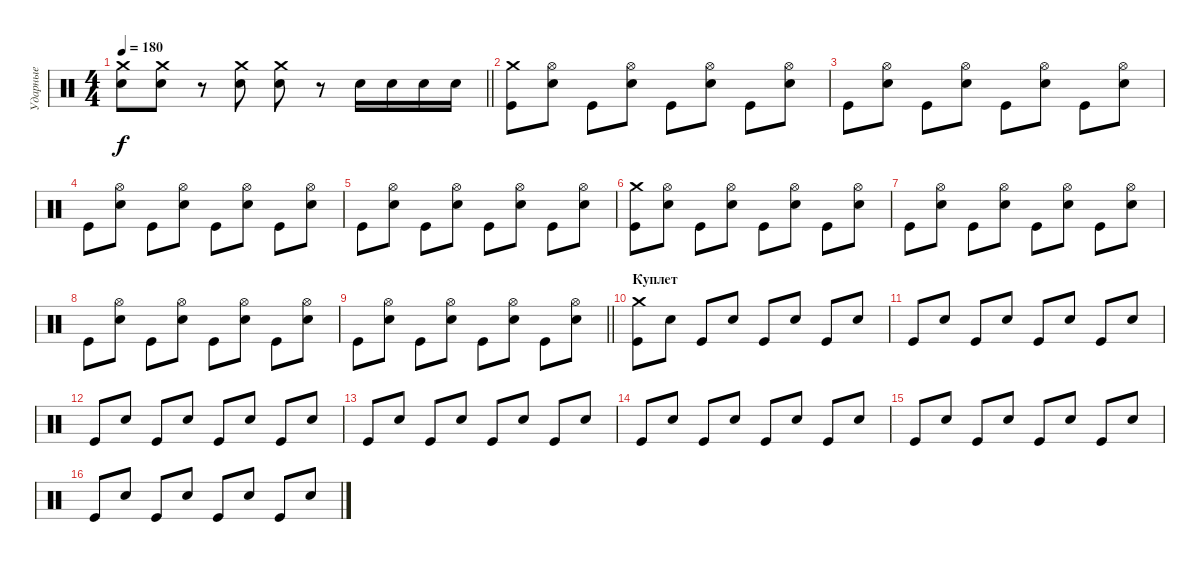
\track ("Ударные" "Ударные") {instrument percussion}
\staff {score}
\articulation defaults
\ts (4 4)
\tempo 180
\clef neutral
\barLineRight lightlight
\ks c
("Crash medium (hit)" "Electric Snare (hit)").8{dy f} ("Crash medium (hit)" "Electric Snare (hit)").8 r.8 ("Crash medium (hit)" "Electric Snare (hit)").8 ("Crash medium (hit)" "Electric Snare (hit)").8 r.8 "Electric Snare (hit)".16 "Electric Snare (hit)".16 "Electric Snare (hit)".16 "Electric Snare (hit)".16 |
("Crash medium (hit)" "Kick (hit)").8 ("Hi-Hat (open)" "Electric Snare (hit)").8 "Kick (hit)".8 ("Hi-Hat (open)" "Electric Snare (hit)").8 "Kick (hit)".8 ("Hi-Hat (open)" "Electric Snare (hit)").8 "Kick (hit)".8 ("Hi-Hat (open)" "Electric Snare (hit)").8 |
"Kick (hit)".8 ("Hi-Hat (open)" "Electric Snare (hit)").8 "Kick (hit)".8 ("Hi-Hat (open)" "Electric Snare (hit)").8 "Kick (hit)".8 ("Hi-Hat (open)" "Electric Snare (hit)").8 "Kick (hit)".8 ("Hi-Hat (open)" "Electric Snare (hit)").8 |
"Kick (hit)".8 ("Hi-Hat (open)" "Electric Snare (hit)").8 "Kick (hit)".8 ("Hi-Hat (open)" "Electric Snare (hit)").8 "Kick (hit)".8 ("Hi-Hat (open)" "Electric Snare (hit)").8 "Kick (hit)".8 ("Hi-Hat (open)" "Electric Snare (hit)").8 |
"Kick (hit)".8 ("Hi-Hat (open)" "Electric Snare (hit)").8 "Kick (hit)".8 ("Hi-Hat (open)" "Electric Snare (hit)").8 "Kick (hit)".8 ("Hi-Hat (open)" "Electric Snare (hit)").8 "Kick (hit)".8 ("Hi-Hat (open)" "Electric Snare (hit)").8 |
("Crash medium (hit)" "Kick (hit)").8 ("Hi-Hat (open)" "Electric Snare (hit)").8 "Kick (hit)".8 ("Hi-Hat (open)" "Electric Snare (hit)").8 "Kick (hit)".8 ("Hi-Hat (open)" "Electric Snare (hit)").8 "Kick (hit)".8 ("Hi-Hat (open)" "Electric Snare (hit)").8 |
"Kick (hit)".8 ("Hi-Hat (open)" "Electric Snare (hit)").8 "Kick (hit)".8 ("Hi-Hat (open)" "Electric Snare (hit)").8 "Kick (hit)".8 ("Hi-Hat (open)" "Electric Snare (hit)").8 "Kick (hit)".8 ("Hi-Hat (open)" "Electric Snare (hit)").8 |
"Kick (hit)".8 ("Hi-Hat (open)" "Electric Snare (hit)").8 "Kick (hit)".8 ("Hi-Hat (open)" "Electric Snare (hit)").8 "Kick (hit)".8 ("Hi-Hat (open)" "Electric Snare (hit)").8 "Kick (hit)".8 ("Hi-Hat (open)" "Electric Snare (hit)").8 |
\barLineRight lightlight "Kick (hit)".8
("Hi-Hat (open)" "Electric Snare (hit)").8 "Kick (hit)".8 ("Hi-Hat (open)" "Electric Snare (hit)").8 "Kick (hit)".8 ("Hi-Hat (open)" "Electric Snare (hit)").8 "Kick (hit)".8 ("Hi-Hat (open)" "Electric Snare (hit)").8 |
\section ("" "Куплет")
("Crash medium (hit)" "Kick (hit)").8 "Electric Snare (hit)".8 "Kick (hit)".8 "Electric Snare (hit)".8 "Kick (hit)".8 "Electric Snare (hit)".8 "Kick (hit)".8 "Electric Snare (hit)".8 |
"Kick (hit)".8 "Electric Snare (hit)".8 "Kick (hit)".8 "Electric Snare (hit)".8 "Kick (hit)".8 "Electric Snare (hit)".8 "Kick (hit)".8 "Electric Snare (hit)".8 |
"Kick (hit)".8 "Electric Snare (hit)".8 "Kick (hit)".8 "Electric Snare (hit)".8 "Kick (hit)".8 "Electric Snare (hit)".8 "Kick (hit)".8 "Electric Snare (hit)".8 |
"Kick (hit)".8 "Electric Snare (hit)".8 "Kick (hit)".8 "Electric Snare (hit)".8 "Kick (hit)".8 "Electric Snare (hit)".8 "Kick (hit)".8 "Electric Snare (hit)".8 |
"Kick (hit)".8 "Electric Snare (hit)".8 "Kick (hit)".8 "Electric Snare (hit)".8 "Kick (hit)".8 "Electric Snare (hit)".8 "Kick (hit)".8 "Electric Snare (hit)".8 |
"Kick (hit)".8 "Electric Snare (hit)".8 "Kick (hit)".8 "Electric Snare (hit)".8 "Kick (hit)".8 "Electric Snare (hit)".8 "Kick (hit)".8 "Electric Snare (hit)".8 |
"Kick (hit)".8 "Electric Snare (hit)".8 "Kick (hit)".8 "Electric Snare (hit)".8 "Kick (hit)".8 "Electric Snare (hit)".8 "Kick (hit)".8 "Electric Snare (hit)".8
